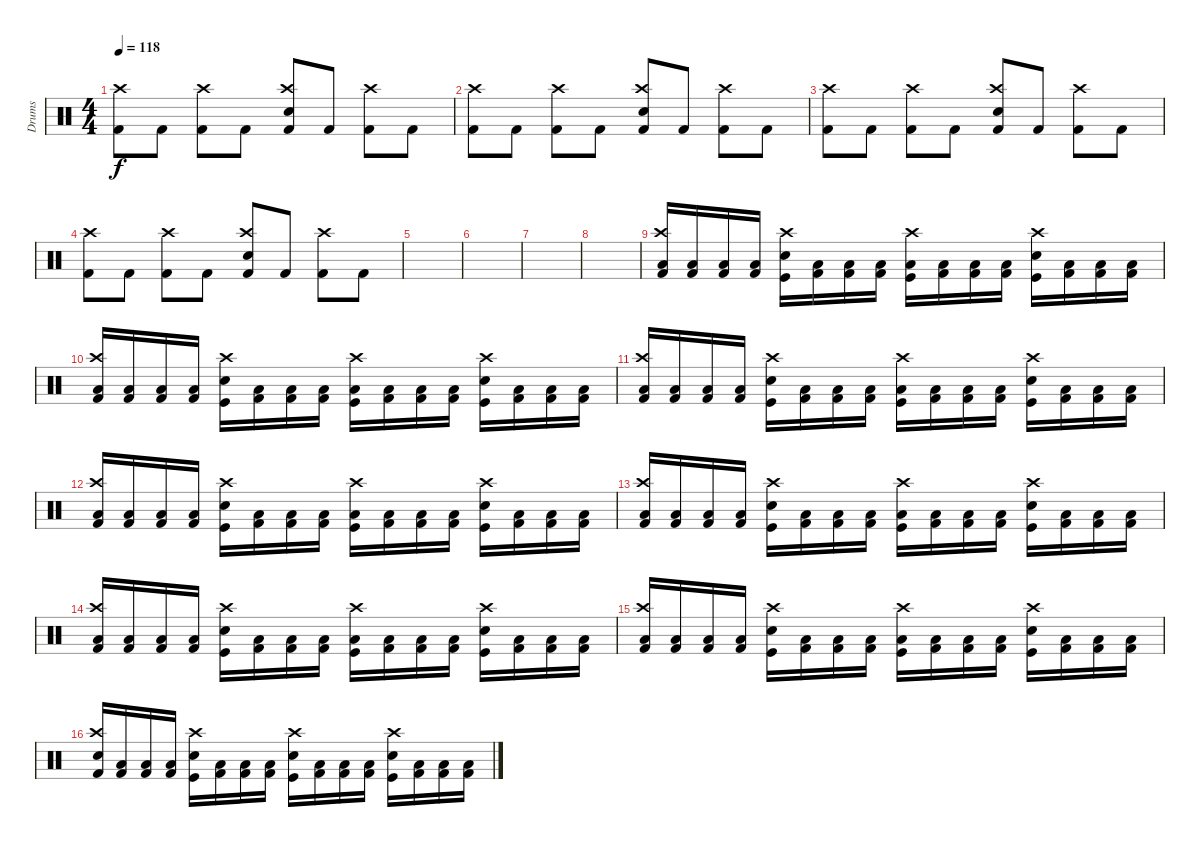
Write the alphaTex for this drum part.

\track ("Drums" "Drums") {instrument percussion}
\staff {score}
\articulation defaults
\ts (4 4)
\tempo 118
\clef neutral
\ks c
("Kick (hit) 2" "Crash high (hit)").8{dy f} "Kick (hit) 2".8 ("Kick (hit) 2" "Crash high (hit)").8 "Kick (hit) 2".8 ("Kick (hit) 2" "Snare (hit) 2" "Crash high (hit)").8 "Kick (hit) 2".8 ("Kick (hit) 2" "Crash high (hit)").8 "Kick (hit) 2".8 |
("Kick (hit) 2" "Crash high (hit)").8 "Kick (hit) 2".8 ("Kick (hit) 2" "Crash high (hit)").8 "Kick (hit) 2".8 ("Kick (hit) 2" "Snare (hit) 2" "Crash high (hit)").8 "Kick (hit) 2".8 ("Kick (hit) 2" "Crash high (hit)").8 "Kick (hit) 2".8 |
("Kick (hit) 2" "Crash high (hit)").8 "Kick (hit) 2".8 ("Kick (hit) 2" "Crash high (hit)").8 "Kick (hit) 2".8 ("Kick (hit) 2" "Snare (hit) 2" "Crash high (hit)").8 "Kick (hit) 2".8 ("Kick (hit) 2" "Crash high (hit)").8 "Kick (hit) 2".8 |
("Kick (hit) 2" "Crash high (hit)").8 "Kick (hit) 2".8 ("Kick (hit) 2" "Crash high (hit)").8 "Kick (hit) 2".8 ("Kick (hit) 2" "Snare (hit) 2" "Crash high (hit)").8 "Kick (hit) 2".8 ("Kick (hit) 2" "Crash high (hit)").8 "Kick (hit) 2".8 |
|
|
|
|
("Kick (hit) 2" "Low Floor Tom (hit)" "Crash high (hit)").16 ("Kick (hit) 2" "Low Floor Tom (hit)").16 ("Kick (hit) 2" "Low Floor Tom (hit)").16 ("Kick (hit) 2" "Low Floor Tom (hit)").16 ("Kick (hit)" "Snare (hit) 2" "Crash high (hit)").16 ("Kick (hit) 2" "Low Floor Tom (hit)").16 ("Kick (hit) 2" "Low Floor Tom (hit)").16 ("Kick (hit) 2" "Low Floor Tom (hit)").16 ("Kick (hit)" "Low Floor Tom (hit)" "Crash high (hit)").16 ("Kick (hit) 2" "Low Floor Tom (hit)").16 ("Kick (hit) 2" "Low Floor Tom (hit)").16 ("Kick (hit) 2" "Low Floor Tom (hit)").16 ("Kick (hit)" "Snare (hit) 2" "Crash high (hit)").16 ("Kick (hit) 2" "Low Floor Tom (hit)").16 ("Kick (hit) 2" "Low Floor Tom (hit)").16 ("Kick (hit) 2" "Low Floor Tom (hit)").16 |
("Kick (hit) 2" "Low Floor Tom (hit)" "Crash high (hit)").16 ("Kick (hit) 2" "Low Floor Tom (hit)").16 ("Kick (hit) 2" "Low Floor Tom (hit)").16 ("Kick (hit) 2" "Low Floor Tom (hit)").16 ("Kick (hit)" "Snare (hit) 2" "Crash high (hit)").16 ("Kick (hit) 2" "Low Floor Tom (hit)").16 ("Kick (hit) 2" "Low Floor Tom (hit)").16 ("Kick (hit) 2" "Low Floor Tom (hit)").16 ("Kick (hit)" "Low Floor Tom (hit)" "Crash high (hit)").16 ("Kick (hit) 2" "Low Floor Tom (hit)").16 ("Kick (hit) 2" "Low Floor Tom (hit)").16 ("Kick (hit) 2" "Low Floor Tom (hit)").16 ("Kick (hit)" "Snare (hit) 2" "Crash high (hit)").16 ("Kick (hit) 2" "Low Floor Tom (hit)").16 ("Kick (hit) 2" "Low Floor Tom (hit)").16 ("Kick (hit) 2" "Low Floor Tom (hit)").16 |
("Kick (hit) 2" "Low Floor Tom (hit)" "Crash high (hit)").16 ("Kick (hit) 2" "Low Floor Tom (hit)").16 ("Kick (hit) 2" "Low Floor Tom (hit)").16 ("Kick (hit) 2" "Low Floor Tom (hit)").16 ("Kick (hit)" "Snare (hit) 2" "Crash high (hit)").16 ("Kick (hit) 2" "Low Floor Tom (hit)").16 ("Kick (hit) 2" "Low Floor Tom (hit)").16 ("Kick (hit) 2" "Low Floor Tom (hit)").16 ("Kick (hit)" "Low Floor Tom (hit)" "Crash high (hit)").16 ("Kick (hit) 2" "Low Floor Tom (hit)").16 ("Kick (hit) 2" "Low Floor Tom (hit)").16 ("Kick (hit) 2" "Low Floor Tom (hit)").16 ("Kick (hit)" "Snare (hit) 2" "Crash high (hit)").16 ("Kick (hit) 2" "Low Floor Tom (hit)").16 ("Kick (hit) 2" "Low Floor Tom (hit)").16 ("Kick (hit) 2" "Low Floor Tom (hit)").16 |
("Kick (hit) 2" "Low Floor Tom (hit)" "Crash high (hit)").16 ("Kick (hit) 2" "Low Floor Tom (hit)").16 ("Kick (hit) 2" "Low Floor Tom (hit)").16 ("Kick (hit) 2" "Low Floor Tom (hit)").16 ("Kick (hit)" "Snare (hit) 2" "Crash high (hit)").16 ("Kick (hit) 2" "Low Floor Tom (hit)").16 ("Kick (hit) 2" "Low Floor Tom (hit)").16 ("Kick (hit) 2" "Low Floor Tom (hit)").16 ("Kick (hit)" "Low Floor Tom (hit)" "Crash high (hit)").16 ("Kick (hit) 2" "Low Floor Tom (hit)").16 ("Kick (hit) 2" "Low Floor Tom (hit)").16 ("Kick (hit) 2" "Low Floor Tom (hit)").16 ("Kick (hit)" "Snare (hit) 2" "Crash high (hit)").16 ("Kick (hit) 2" "Low Floor Tom (hit)").16 ("Kick (hit) 2" "Low Floor Tom (hit)").16 ("Kick (hit) 2" "Low Floor Tom (hit)").16 |
("Kick (hit) 2" "Low Floor Tom (hit)" "Crash high (hit)").16 ("Kick (hit) 2" "Low Floor Tom (hit)").16 ("Kick (hit) 2" "Low Floor Tom (hit)").16 ("Kick (hit) 2" "Low Floor Tom (hit)").16 ("Kick (hit)" "Snare (hit) 2" "Crash high (hit)").16 ("Kick (hit) 2" "Low Floor Tom (hit)").16 ("Kick (hit) 2" "Low Floor Tom (hit)").16 ("Kick (hit) 2" "Low Floor Tom (hit)").16 ("Kick (hit)" "Low Floor Tom (hit)" "Crash high (hit)").16 ("Kick (hit) 2" "Low Floor Tom (hit)").16 ("Kick (hit) 2" "Low Floor Tom (hit)").16 ("Kick (hit) 2" "Low Floor Tom (hit)").16 ("Kick (hit)" "Snare (hit) 2" "Crash high (hit)").16 ("Kick (hit) 2" "Low Floor Tom (hit)").16 ("Kick (hit) 2" "Low Floor Tom (hit)").16 ("Kick (hit) 2" "Low Floor Tom (hit)").16 |
("Kick (hit) 2" "Low Floor Tom (hit)" "Crash high (hit)").16 ("Kick (hit) 2" "Low Floor Tom (hit)").16 ("Kick (hit) 2" "Low Floor Tom (hit)").16 ("Kick (hit) 2" "Low Floor Tom (hit)").16 ("Kick (hit)" "Snare (hit) 2" "Crash high (hit)").16 ("Kick (hit) 2" "Low Floor Tom (hit)").16 ("Kick (hit) 2" "Low Floor Tom (hit)").16 ("Kick (hit) 2" "Low Floor Tom (hit)").16 ("Kick (hit)" "Low Floor Tom (hit)" "Crash high (hit)").16 ("Kick (hit) 2" "Low Floor Tom (hit)").16 ("Kick (hit) 2" "Low Floor Tom (hit)").16 ("Kick (hit) 2" "Low Floor Tom (hit)").16 ("Kick (hit)" "Snare (hit) 2" "Crash high (hit)").16 ("Kick (hit) 2" "Low Floor Tom (hit)").16 ("Kick (hit) 2" "Low Floor Tom (hit)").16 ("Kick (hit) 2" "Low Floor Tom (hit)").16 |
("Kick (hit) 2" "Low Floor Tom (hit)" "Crash high (hit)").16 ("Kick (hit) 2" "Low Floor Tom (hit)").16 ("Kick (hit) 2" "Low Floor Tom (hit)").16 ("Kick (hit) 2" "Low Floor Tom (hit)").16 ("Kick (hit)" "Snare (hit) 2" "Crash high (hit)").16 ("Kick (hit) 2" "Low Floor Tom (hit)").16 ("Kick (hit) 2" "Low Floor Tom (hit)").16 ("Kick (hit) 2" "Low Floor Tom (hit)").16 ("Kick (hit)" "Low Floor Tom (hit)" "Crash high (hit)").16 ("Kick (hit) 2" "Low Floor Tom (hit)").16 ("Kick (hit) 2" "Low Floor Tom (hit)").16 ("Kick (hit) 2" "Low Floor Tom (hit)").16 ("Kick (hit)" "Snare (hit) 2" "Crash high (hit)").16 ("Kick (hit) 2" "Low Floor Tom (hit)").16 ("Kick (hit) 2" "Low Floor Tom (hit)").16 ("Kick (hit) 2" "Low Floor Tom (hit)").16 |
("Kick (hit) 2" "Snare (hit) 2" "Crash high (hit)").16 ("Kick (hit) 2" "Low Floor Tom (hit)").16 ("Kick (hit) 2" "Low Floor Tom (hit)").16 ("Kick (hit) 2" "Low Floor Tom (hit)").16 ("Kick (hit)" "Snare (hit) 2" "Crash high (hit)").16 ("Kick (hit) 2" "Low Floor Tom (hit)").16 ("Kick (hit) 2" "Low Floor Tom (hit)").16 ("Kick (hit) 2" "Low Floor Tom (hit)").16 ("Kick (hit)" "Snare (hit) 2" "Crash high (hit)").16 ("Kick (hit) 2" "Low Floor Tom (hit)").16 ("Kick (hit) 2" "Low Floor Tom (hit)").16 ("Kick (hit) 2" "Low Floor Tom (hit)").16 ("Kick (hit)" "Snare (hit) 2" "Crash high (hit)").16 ("Kick (hit) 2" "Low Floor Tom (hit)").16 ("Kick (hit) 2" "Low Floor Tom (hit)").16 ("Kick (hit) 2" "Low Floor Tom (hit)").16
